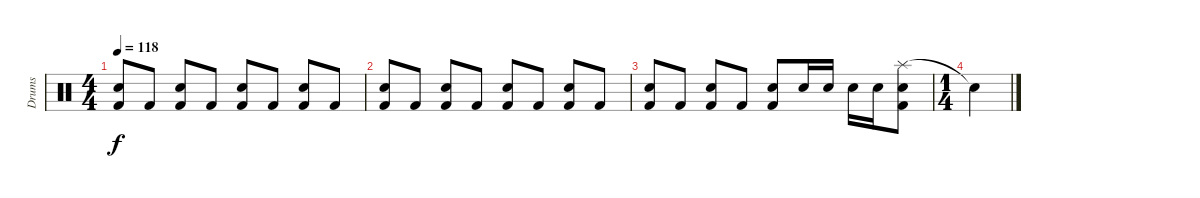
\track ("Drums" "Drums") {instrument percussion}
\staff {score}
\articulation defaults
\ts (4 4)
\tempo 118
\clef neutral
\ks c
("Snare (hit) 2" "Kick (hit) 2").8{dy f} "Kick (hit) 2".8 ("Snare (hit) 2" "Kick (hit) 2").8 "Kick (hit) 2".8 ("Snare (hit) 2" "Kick (hit) 2").8 "Kick (hit) 2".8 ("Snare (hit) 2" "Kick (hit) 2").8 "Kick (hit) 2".8 |
("Snare (hit) 2" "Kick (hit) 2").8 "Kick (hit) 2".8 ("Snare (hit) 2" "Kick (hit) 2").8 "Kick (hit) 2".8 ("Snare (hit) 2" "Kick (hit) 2").8 "Kick (hit) 2".8 ("Snare (hit) 2" "Kick (hit) 2").8 "Kick (hit) 2".8 |
("Snare (hit) 2" "Kick (hit) 2").8 "Kick (hit) 2".8 ("Snare (hit) 2" "Kick (hit) 2").8 "Kick (hit) 2".8 ("Snare (hit) 2" "Kick (hit) 2").8 "Snare (hit) 2".16 "Snare (hit) 2".16 "Snare (hit) 2".16 "Snare (hit) 2".16 ("Splash (hit)" "Snare (hit) 2" "Kick (hit) 2").8 |
\ts (1 4)
"Snare (hit)"{t}.4
